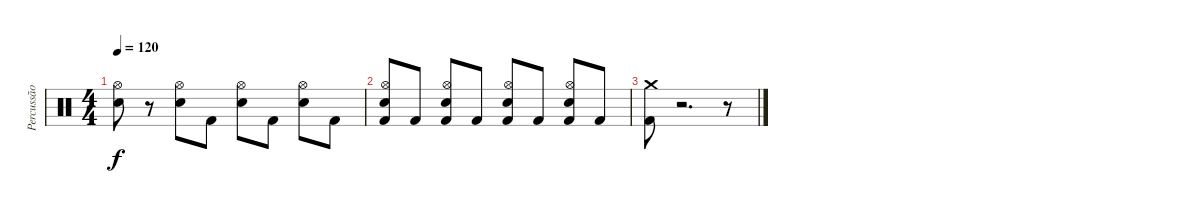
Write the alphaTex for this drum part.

\track ("Percussão" "Percussão") {instrument percussion}
\staff {score}
\articulation defaults
\ts (4 4)
\tempo 120
\clef neutral
\ks c
("Electric Snare (hit)" "Hi-Hat (open)").8{dy f} r.8 ("Electric Snare (hit)" "Hi-Hat (open)").8 "Kick (hit) 2".8 ("Electric Snare (hit)" "Hi-Hat (open)").8 "Kick (hit) 2".8 ("Electric Snare (hit)" "Hi-Hat (open)").8 "Kick (hit) 2".8 |
("Electric Snare (hit)" "Kick (hit) 2" "Hi-Hat (open)").8 "Kick (hit) 2".8 ("Electric Snare (hit)" "Kick (hit) 2" "Hi-Hat (open)").8 "Kick (hit) 2".8 ("Electric Snare (hit)" "Kick (hit) 2" "Hi-Hat (open)").8 "Kick (hit) 2".8 ("Electric Snare (hit)" "Kick (hit) 2" "Hi-Hat (open)").8 "Kick (hit) 2".8 |
("Kick (hit) 2" "Crash medium (hit)").8 r.2{d} r.8
